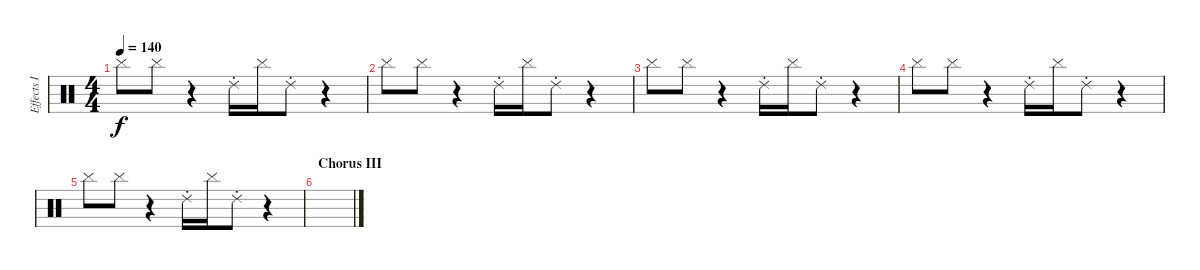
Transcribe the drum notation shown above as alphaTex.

\track ("Effects I" "Effects I") {instrument percussion}
\staff {score}
\articulation defaults
\ts (4 4)
\tempo 140
\clef neutral
\ks c "Cymbal (hit)".8{dy f} "Cymbal (hit)".8
r.4 "Ride (choke) 2".16 "Cymbal (hit)".16 "Ride (choke) 2".8 r.4 |
"Cymbal (hit)".8 "Cymbal (hit)".8 r.4 "Ride (choke) 2".16 "Cymbal (hit)".16 "Ride (choke) 2".8 r.4 |
"Cymbal (hit)".8 "Cymbal (hit)".8 r.4 "Ride (choke) 2".16 "Cymbal (hit)".16 "Ride (choke) 2".8 r.4 |
"Cymbal (hit)".8 "Cymbal (hit)".8 r.4 "Ride (choke) 2".16 "Cymbal (hit)".16 "Ride (choke) 2".8 r.4 |
"Cymbal (hit)".8 "Cymbal (hit)".8 r.4 "Ride (choke) 2".16 "Cymbal (hit)".16 "Ride (choke) 2".8 r.4 |
\section ("" "Chorus III")
